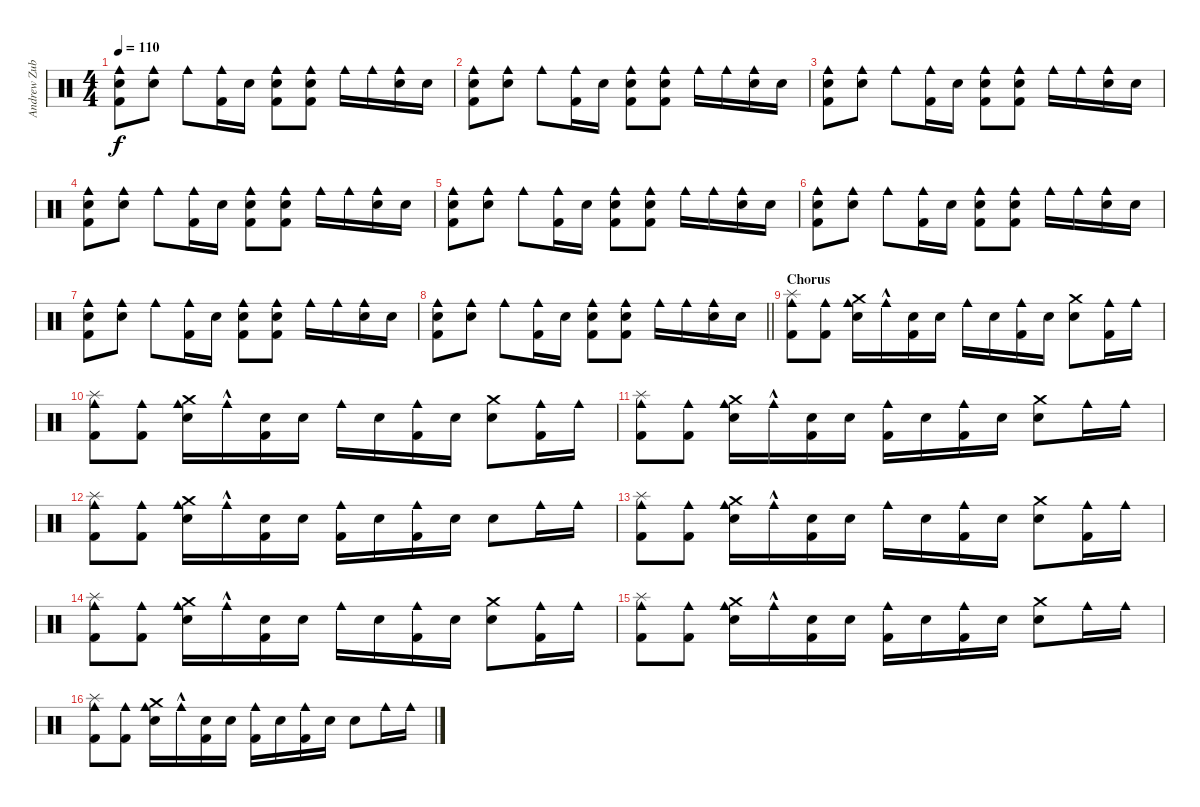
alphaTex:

\track ("Andrew Zubiszewski" "Andrew Zub") {instrument percussion}
\staff {score}
\articulation defaults
\ts (4 4)
\tempo 110
\clef neutral
\ks c
("Cowbell medium (hit)" "Kick (hit) 2" "Electric Snare (hit)").8{dy f} ("Cowbell medium (hit)" "Electric Snare (hit)").8 "Cowbell medium (hit)".8 ("Cowbell medium (hit)" "Kick (hit) 2").16 "Electric Snare (hit)".16 ("Cowbell medium (hit)" "Kick (hit) 2" "Electric Snare (hit)").8 ("Cowbell medium (hit)" "Kick (hit) 2" "Electric Snare (hit)").8 "Cowbell medium (hit)".16 "Cowbell medium (hit)".16 ("Cowbell medium (hit)" "Electric Snare (hit)").16 "Electric Snare (hit)".16 |
("Cowbell medium (hit)" "Kick (hit) 2" "Electric Snare (hit)").8 ("Cowbell medium (hit)" "Electric Snare (hit)").8 "Cowbell medium (hit)".8 ("Cowbell medium (hit)" "Kick (hit) 2").16 "Electric Snare (hit)".16 ("Cowbell medium (hit)" "Kick (hit) 2" "Electric Snare (hit)").8 ("Cowbell medium (hit)" "Kick (hit) 2" "Electric Snare (hit)").8 "Cowbell medium (hit)".16 "Cowbell medium (hit)".16 ("Cowbell medium (hit)" "Electric Snare (hit)").16 "Electric Snare (hit)".16 |
("Cowbell medium (hit)" "Kick (hit) 2" "Electric Snare (hit)").8 ("Cowbell medium (hit)" "Electric Snare (hit)").8 "Cowbell medium (hit)".8 ("Cowbell medium (hit)" "Kick (hit) 2").16 "Electric Snare (hit)".16 ("Cowbell medium (hit)" "Kick (hit) 2" "Electric Snare (hit)").8 ("Cowbell medium (hit)" "Kick (hit) 2" "Electric Snare (hit)").8 "Cowbell medium (hit)".16 "Cowbell medium (hit)".16 ("Cowbell medium (hit)" "Electric Snare (hit)").16 "Electric Snare (hit)".16 |
("Cowbell medium (hit)" "Kick (hit) 2" "Electric Snare (hit)").8 ("Cowbell medium (hit)" "Electric Snare (hit)").8 "Cowbell medium (hit)".8 ("Cowbell medium (hit)" "Kick (hit) 2").16 "Electric Snare (hit)".16 ("Cowbell medium (hit)" "Kick (hit) 2" "Electric Snare (hit)").8 ("Cowbell medium (hit)" "Kick (hit) 2" "Electric Snare (hit)").8 "Cowbell medium (hit)".16 "Cowbell medium (hit)".16 ("Cowbell medium (hit)" "Electric Snare (hit)").16 "Electric Snare (hit)".16 |
("Cowbell medium (hit)" "Kick (hit) 2" "Electric Snare (hit)").8 ("Cowbell medium (hit)" "Electric Snare (hit)").8 "Cowbell medium (hit)".8 ("Cowbell medium (hit)" "Kick (hit) 2").16 "Electric Snare (hit)".16 ("Cowbell medium (hit)" "Kick (hit) 2" "Electric Snare (hit)").8 ("Cowbell medium (hit)" "Kick (hit) 2" "Electric Snare (hit)").8 "Cowbell medium (hit)".16 "Cowbell medium (hit)".16 ("Cowbell medium (hit)" "Electric Snare (hit)").16 "Electric Snare (hit)".16 |
("Cowbell medium (hit)" "Kick (hit) 2" "Electric Snare (hit)").8 ("Cowbell medium (hit)" "Electric Snare (hit)").8 "Cowbell medium (hit)".8 ("Cowbell medium (hit)" "Kick (hit) 2").16 "Electric Snare (hit)".16 ("Cowbell medium (hit)" "Kick (hit) 2" "Electric Snare (hit)").8 ("Cowbell medium (hit)" "Kick (hit) 2" "Electric Snare (hit)").8 "Cowbell medium (hit)".16 "Cowbell medium (hit)".16 ("Cowbell medium (hit)" "Electric Snare (hit)").16 "Electric Snare (hit)".16 |
("Cowbell medium (hit)" "Kick (hit) 2" "Electric Snare (hit)").8 ("Cowbell medium (hit)" "Electric Snare (hit)").8 "Cowbell medium (hit)".8 ("Cowbell medium (hit)" "Kick (hit) 2").16 "Electric Snare (hit)".16 ("Cowbell medium (hit)" "Kick (hit) 2" "Electric Snare (hit)").8 ("Cowbell medium (hit)" "Kick (hit) 2" "Electric Snare (hit)").8 "Cowbell medium (hit)".16 "Cowbell medium (hit)".16 ("Cowbell medium (hit)" "Electric Snare (hit)").16 "Electric Snare (hit)".16 |
\barLineRight lightlight
("Cowbell medium (hit)" "Kick (hit) 2" "Electric Snare (hit)").8 ("Cowbell medium (hit)" "Electric Snare (hit)").8 "Cowbell medium (hit)".8 ("Cowbell medium (hit)" "Kick (hit) 2").16 "Electric Snare (hit)".16 ("Cowbell medium (hit)" "Kick (hit) 2" "Electric Snare (hit)").8 ("Cowbell medium (hit)" "Kick (hit) 2" "Electric Snare (hit)").8 "Cowbell medium (hit)".16 "Cowbell medium (hit)".16 ("Cowbell medium (hit)" "Electric Snare (hit)").16 "Electric Snare (hit)".16 |
\section ("" "Chorus")
("Kick (hit) 2" "Splash (hit)" "Cowbell medium (hit)").8 ("Kick (hit) 2" "Cowbell medium (hit)").8 ("Electric Snare (hit)" "Cowbell medium (hit)" "Crash medium (hit)").16 "Cowbell medium (hit)"{hac}.16 ("Kick (hit) 2" "Electric Snare (hit)").16 "Electric Snare (hit)".16 "Cowbell medium (hit)".16 "Electric Snare (hit)".16 ("Kick (hit) 2" "Cowbell medium (hit)").16 "Electric Snare (hit)".16 ("Electric Snare (hit)" "Crash medium (hit)").8 ("Cowbell medium (hit)" "Kick (hit) 2").16 "Cowbell medium (hit)".16 |
("Kick (hit) 2" "Splash (hit)" "Cowbell medium (hit)").8 ("Kick (hit) 2" "Cowbell medium (hit)").8 ("Electric Snare (hit)" "Cowbell medium (hit)" "Crash medium (hit)").16 "Cowbell medium (hit)"{hac}.16 ("Kick (hit) 2" "Electric Snare (hit)").16 "Electric Snare (hit)".16 "Cowbell medium (hit)".16 "Electric Snare (hit)".16 ("Kick (hit) 2" "Cowbell medium (hit)").16 "Electric Snare (hit)".16 ("Electric Snare (hit)" "Crash medium (hit)").8 ("Cowbell medium (hit)" "Kick (hit) 2").16 "Cowbell medium (hit)".16 |
("Kick (hit) 2" "Splash (hit)" "Cowbell medium (hit)").8 ("Kick (hit) 2" "Cowbell medium (hit)").8 ("Electric Snare (hit)" "Cowbell medium (hit)" "Crash medium (hit)").16 "Cowbell medium (hit)"{hac}.16 ("Kick (hit) 2" "Electric Snare (hit)").16 "Electric Snare (hit)".16 ("Kick (hit) 2" "Cowbell medium (hit)").16 "Electric Snare (hit)".16 ("Kick (hit) 2" "Cowbell medium (hit)").16 "Electric Snare (hit)".16 ("Electric Snare (hit)" "Crash medium (hit)").8 "Cowbell medium (hit)".16 "Cowbell medium (hit)".16 |
("Kick (hit) 2" "Splash (hit)" "Cowbell medium (hit)").8 ("Kick (hit) 2" "Cowbell medium (hit)").8 ("Electric Snare (hit)" "Cowbell medium (hit)" "Crash medium (hit)").16 "Cowbell medium (hit)"{hac}.16 ("Kick (hit) 2" "Electric Snare (hit)").16 "Electric Snare (hit)".16 ("Kick (hit) 2" "Cowbell medium (hit)").16 "Electric Snare (hit)".16 ("Kick (hit) 2" "Cowbell medium (hit)").16 "Electric Snare (hit)".16 "Electric Snare (hit)".8 "Cowbell medium (hit)".16 "Cowbell medium (hit)".16 |
("Kick (hit) 2" "Splash (hit)" "Cowbell medium (hit)").8 ("Kick (hit) 2" "Cowbell medium (hit)").8 ("Electric Snare (hit)" "Cowbell medium (hit)" "Crash medium (hit)").16 "Cowbell medium (hit)"{hac}.16 ("Kick (hit) 2" "Electric Snare (hit)").16 "Electric Snare (hit)".16 "Cowbell medium (hit)".16 "Electric Snare (hit)".16 ("Kick (hit) 2" "Cowbell medium (hit)").16 "Electric Snare (hit)".16 ("Electric Snare (hit)" "Crash medium (hit)").8 ("Cowbell medium (hit)" "Kick (hit) 2").16 "Cowbell medium (hit)".16 |
("Kick (hit) 2" "Splash (hit)" "Cowbell medium (hit)").8 ("Kick (hit) 2" "Cowbell medium (hit)").8 ("Electric Snare (hit)" "Cowbell medium (hit)" "Crash medium (hit)").16 "Cowbell medium (hit)"{hac}.16 ("Kick (hit) 2" "Electric Snare (hit)").16 "Electric Snare (hit)".16 "Cowbell medium (hit)".16 "Electric Snare (hit)".16 ("Kick (hit) 2" "Cowbell medium (hit)").16 "Electric Snare (hit)".16 ("Electric Snare (hit)" "Crash medium (hit)").8 ("Cowbell medium (hit)" "Kick (hit) 2").16 "Cowbell medium (hit)".16 |
("Kick (hit) 2" "Splash (hit)" "Cowbell medium (hit)").8 ("Kick (hit) 2" "Cowbell medium (hit)").8 ("Electric Snare (hit)" "Cowbell medium (hit)" "Crash medium (hit)").16 "Cowbell medium (hit)"{hac}.16 ("Kick (hit) 2" "Electric Snare (hit)").16 "Electric Snare (hit)".16 ("Kick (hit) 2" "Cowbell medium (hit)").16 "Electric Snare (hit)".16 ("Kick (hit) 2" "Cowbell medium (hit)").16 "Electric Snare (hit)".16 ("Electric Snare (hit)" "Crash medium (hit)").8 "Cowbell medium (hit)".16 "Cowbell medium (hit)".16 |
("Kick (hit) 2" "Splash (hit)" "Cowbell medium (hit)").8 ("Kick (hit) 2" "Cowbell medium (hit)").8 ("Electric Snare (hit)" "Cowbell medium (hit)" "Crash medium (hit)").16 "Cowbell medium (hit)"{hac}.16 ("Kick (hit) 2" "Electric Snare (hit)").16 "Electric Snare (hit)".16 ("Kick (hit) 2" "Cowbell medium (hit)").16 "Electric Snare (hit)".16 ("Kick (hit) 2" "Cowbell medium (hit)").16 "Electric Snare (hit)".16 "Electric Snare (hit)".8 "Cowbell medium (hit)".16 "Cowbell medium (hit)".16
